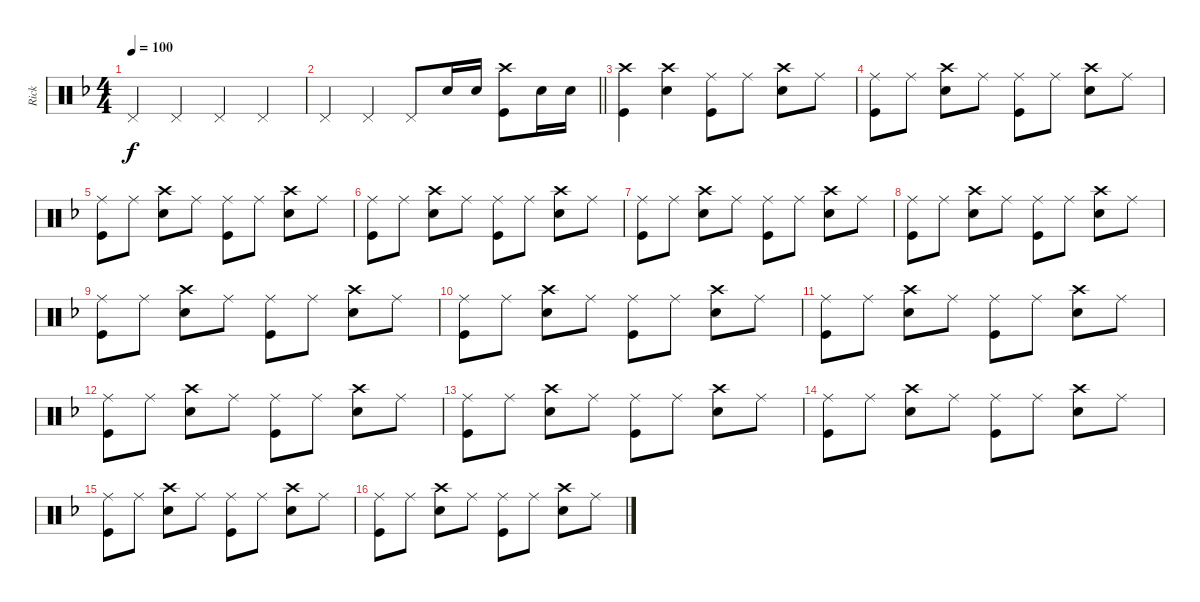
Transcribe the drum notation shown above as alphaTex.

\track ("Rick" "Rick") {instrument percussion}
\staff {score}
\articulation defaults
\ts (4 4)
\tempo 100
\clef neutral
\ks dminor "Pedal Hi-Hat (hit)".4{dy f} "Pedal Hi-Hat (hit)".4 "Pedal Hi-Hat (hit)".4 "Pedal Hi-Hat (hit)".4
|
\barLineRight lightlight "Pedal Hi-Hat (hit)".4 "Pedal Hi-Hat (hit)".4 "Pedal Hi-Hat (hit)".8 "Snare (hit) 2".16 "Snare (hit) 2".16
("Crash high (hit)" "Kick (hit)").8 "Snare (hit) 2".16 "Snare (hit) 2".16 |
("Crash high (hit)" "Kick (hit)").4 ("Crash high (hit)" "Snare (hit) 2").4 ("Ride (middle)" "Kick (hit)").8 "Ride (middle)".8 ("Crash high (hit)" "Snare (hit) 2").8 "Ride (middle)".8 |
("Ride (middle)" "Kick (hit)").8 "Ride (middle)".8 ("Crash high (hit)" "Snare (hit) 2").8 "Ride (middle)".8 ("Ride (middle)" "Kick (hit)").8 "Ride (middle)".8 ("Crash high (hit)" "Snare (hit) 2").8 "Ride (middle)".8 |
("Ride (middle)" "Kick (hit)").8 "Ride (middle)".8 ("Crash high (hit)" "Snare (hit) 2").8 "Ride (middle)".8 ("Ride (middle)" "Kick (hit)").8 "Ride (middle)".8 ("Crash high (hit)" "Snare (hit) 2").8 "Ride (middle)".8 |
("Ride (middle)" "Kick (hit)").8 "Ride (middle)".8 ("Crash high (hit)" "Snare (hit) 2").8 "Ride (middle)".8 ("Ride (middle)" "Kick (hit)").8 "Ride (middle)".8 ("Crash high (hit)" "Snare (hit) 2").8 "Ride (middle)".8 |
("Ride (middle)" "Kick (hit)").8 "Ride (middle)".8 ("Crash high (hit)" "Snare (hit) 2").8 "Ride (middle)".8 ("Ride (middle)" "Kick (hit)").8 "Ride (middle)".8 ("Crash high (hit)" "Snare (hit) 2").8 "Ride (middle)".8 |
("Ride (middle)" "Kick (hit)").8 "Ride (middle)".8 ("Crash high (hit)" "Snare (hit) 2").8 "Ride (middle)".8 ("Ride (middle)" "Kick (hit)").8 "Ride (middle)".8 ("Crash high (hit)" "Snare (hit) 2").8 "Ride (middle)".8 |
("Ride (middle)" "Kick (hit)").8 "Ride (middle)".8 ("Crash high (hit)" "Snare (hit) 2").8 "Ride (middle)".8 ("Ride (middle)" "Kick (hit)").8 "Ride (middle)".8 ("Crash high (hit)" "Snare (hit) 2").8 "Ride (middle)".8 |
("Ride (middle)" "Kick (hit)").8 "Ride (middle)".8 ("Crash high (hit)" "Snare (hit) 2").8 "Ride (middle)".8 ("Ride (middle)" "Kick (hit)").8 "Ride (middle)".8 ("Crash high (hit)" "Snare (hit) 2").8 "Ride (middle)".8 |
("Ride (middle)" "Kick (hit)").8 "Ride (middle)".8 ("Crash high (hit)" "Snare (hit) 2").8 "Ride (middle)".8 ("Ride (middle)" "Kick (hit)").8 "Ride (middle)".8 ("Crash high (hit)" "Snare (hit) 2").8 "Ride (middle)".8 |
("Ride (middle)" "Kick (hit)").8 "Ride (middle)".8 ("Crash high (hit)" "Snare (hit) 2").8 "Ride (middle)".8 ("Ride (middle)" "Kick (hit)").8 "Ride (middle)".8 ("Crash high (hit)" "Snare (hit) 2").8 "Ride (middle)".8 |
("Ride (middle)" "Kick (hit)").8 "Ride (middle)".8 ("Crash high (hit)" "Snare (hit) 2").8 "Ride (middle)".8 ("Ride (middle)" "Kick (hit)").8 "Ride (middle)".8 ("Crash high (hit)" "Snare (hit) 2").8 "Ride (middle)".8 |
("Ride (middle)" "Kick (hit)").8 "Ride (middle)".8 ("Crash high (hit)" "Snare (hit) 2").8 "Ride (middle)".8 ("Ride (middle)" "Kick (hit)").8 "Ride (middle)".8 ("Crash high (hit)" "Snare (hit) 2").8 "Ride (middle)".8 |
("Ride (middle)" "Kick (hit)").8 "Ride (middle)".8 ("Crash high (hit)" "Snare (hit) 2").8 "Ride (middle)".8 ("Ride (middle)" "Kick (hit)").8 "Ride (middle)".8 ("Crash high (hit)" "Snare (hit) 2").8 "Ride (middle)".8 |
("Ride (middle)" "Kick (hit)").8 "Ride (middle)".8 ("Crash high (hit)" "Snare (hit) 2").8 "Ride (middle)".8 ("Ride (middle)" "Kick (hit)").8 "Ride (middle)".8 ("Crash high (hit)" "Snare (hit) 2").8 "Ride (middle)".8
